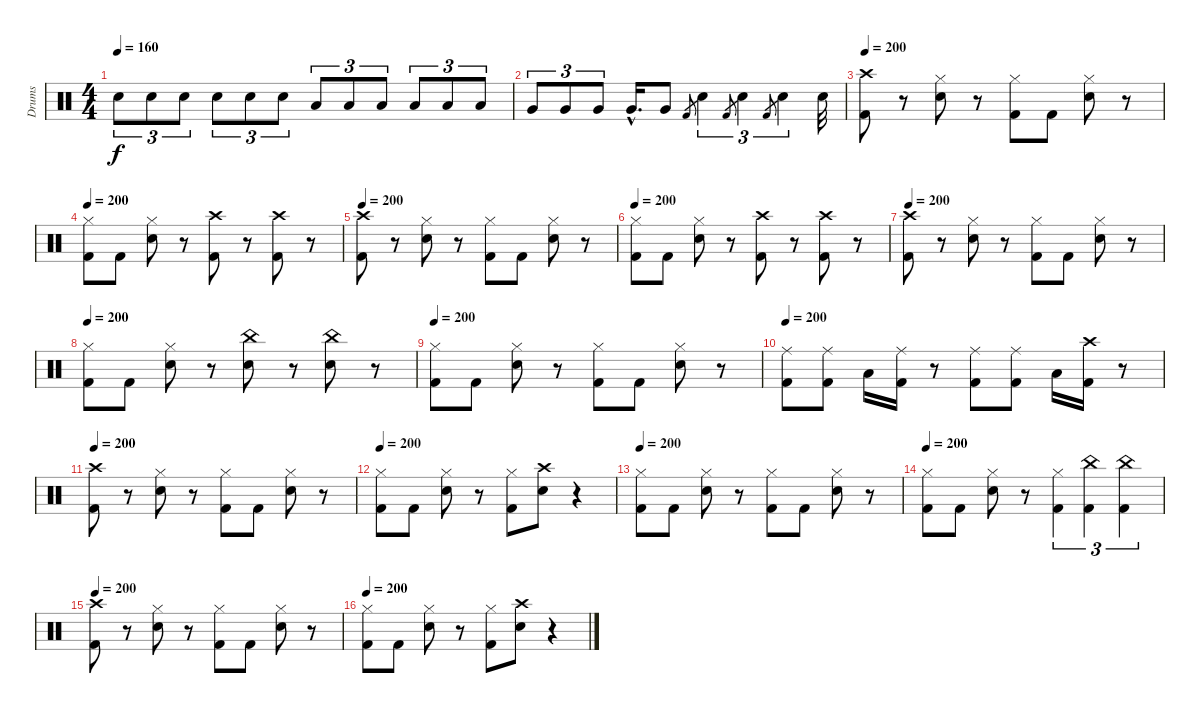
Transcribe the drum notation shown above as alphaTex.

\track ("Drums" "Drums") {instrument percussion}
\staff {score}
\articulation defaults
\ts (4 4)
\tempo 160
\clef neutral
\ks c "Snare (hit) 2".8{tu (3 2) dy f} "Snare (hit) 2".8{tu (3 2)} "Snare (hit) 2".8{tu (3 2)} "Snare (hit) 2".8{tu (3 2)} "Snare (hit) 2".8{tu (3 2)} "Snare (hit) 2".8{tu (3 2)} "Low Tom (hit)".8{tu (3 2)} "Low Tom (hit)".8{tu (3 2)} "Low Tom (hit)".8{tu (3 2)} "Low Tom (hit)".8{tu (3 2)} "Low Tom (hit)".8{tu (3 2)} "Low Tom (hit)".8{tu (3 2)}
|
"Very Low Tom (hit)".8{tu (3 2)} "Very Low Tom (hit)".8{tu (3 2)} "Very Low Tom (hit)".8{tu (3 2)} "Very Low Tom (hit)"{hac}.16{d} "Very Low Tom (hit)".8 "Kick (hit) 2".8{gr} "Snare (hit) 2".4{tu (3 2)} "Kick (hit) 2".8{gr} "Snare (hit) 2".4{tu (3 2)} "Kick (hit) 2".8{gr} "Snare (hit) 2".4{tu (3 2)} "Snare (hit) 2".32 |
\tempo 200
("Kick (hit) 2" "Crash high (hit)").8 r.8 ("Hi-Hat (closed)" "Snare (hit) 2").8 r.8 ("Kick (hit) 2" "Hi-Hat (closed)").8 "Kick (hit) 2".8 ("Snare (hit) 2" "Hi-Hat (closed)").8 r.8 |
\tempo 200
("Kick (hit) 2" "Hi-Hat (closed)").8 "Kick (hit) 2".8 ("Snare (hit) 2" "Hi-Hat (closed)").8 r.8 ("Crash high (hit)" "Kick (hit) 2").8 r.8 ("Crash high (hit)" "Kick (hit) 2").8 r.8 |
\tempo 200
("Kick (hit) 2" "Crash high (hit)").8 r.8 ("Hi-Hat (closed)" "Snare (hit) 2").8 r.8 ("Kick (hit) 2" "Hi-Hat (closed)").8 "Kick (hit) 2".8 ("Snare (hit) 2" "Hi-Hat (closed)").8 r.8 |
\tempo 200
("Kick (hit) 2" "Hi-Hat (closed)").8 "Kick (hit) 2".8 ("Snare (hit) 2" "Hi-Hat (closed)").8 r.8 ("Crash high (hit)" "Kick (hit) 2").8 r.8 ("Crash high (hit)" "Kick (hit) 2").8 r.8 |
\tempo 200
("Kick (hit) 2" "Crash high (hit)").8 r.8 ("Hi-Hat (closed)" "Snare (hit) 2").8 r.8 ("Kick (hit) 2" "Hi-Hat (closed)").8 "Kick (hit) 2".8 ("Snare (hit) 2" "Hi-Hat (closed)").8 r.8 |
\tempo 200
("Kick (hit) 2" "Hi-Hat (closed)").8 "Kick (hit) 2".8 ("Snare (hit) 2" "Hi-Hat (closed)").8 r.8 ("China (hit)" "Snare (hit) 2").8 r.8 ("China (hit)" "Snare (hit) 2").8 r.8 |
\tempo 200
("Kick (hit) 2" "Hi-Hat (closed)").8 "Kick (hit) 2".8 ("Snare (hit) 2" "Hi-Hat (closed)").8 r.8 ("Kick (hit) 2" "Hi-Hat (closed)").8 "Kick (hit) 2".8 ("Snare (hit) 2" "Hi-Hat (closed)").8 r.8 |
\tempo 200
("Ride (middle)" "Kick (hit) 2").8 ("Ride (middle)" "Kick (hit) 2").8 "Low Tom (hit)".16 ("Ride (middle)" "Kick (hit) 2").16 r.8 ("Ride (middle)" "Kick (hit) 2").8 ("Ride (middle)" "Kick (hit) 2").8 "Low Tom (hit)".16 ("Crash high (hit)" "Kick (hit) 2").16 r.8 |
\tempo 200
("Kick (hit) 2" "Crash high (hit)").8 r.8 ("Hi-Hat (closed)" "Snare (hit) 2").8 r.8 ("Hi-Hat (closed)" "Kick (hit) 2").8 "Kick (hit) 2".8 ("Hi-Hat (closed)" "Snare (hit) 2").8 r.8 |
\tempo 200
("Kick (hit) 2" "Hi-Hat (closed)").8 "Kick (hit) 2".8 ("Snare (hit) 2" "Hi-Hat (closed)").8 r.8 ("Hi-Hat (closed)" "Kick (hit) 2").8 ("Crash high (hit)" "Snare (hit) 2").8 r.4 |
\tempo 200
("Kick (hit) 2" "Hi-Hat (closed)").8 "Kick (hit) 2".8 ("Snare (hit) 2" "Hi-Hat (closed)").8 r.8 ("Kick (hit) 2" "Hi-Hat (closed)").8 "Kick (hit) 2".8 ("Snare (hit) 2" "Hi-Hat (closed)").8 r.8 |
\tempo 200
("Kick (hit) 2" "Hi-Hat (closed)").8 "Kick (hit) 2".8 ("Snare (hit) 2" "Hi-Hat (closed)").8 r.8 ("Hi-Hat (closed)" "Kick (hit) 2").4{tu (3 2)} ("China (hit)" "Kick (hit) 2").4{tu (3 2)} ("China (hit)" "Kick (hit) 2").4{tu (3 2)} |
\tempo 200
("Kick (hit) 2" "Crash high (hit)").8 r.8 ("Hi-Hat (closed)" "Snare (hit) 2").8 r.8 ("Hi-Hat (closed)" "Kick (hit) 2").8 "Kick (hit) 2".8 ("Hi-Hat (closed)" "Snare (hit) 2").8 r.8 |
\tempo 200
("Kick (hit) 2" "Hi-Hat (closed)").8 "Kick (hit) 2".8 ("Snare (hit) 2" "Hi-Hat (closed)").8 r.8 ("Hi-Hat (closed)" "Kick (hit) 2").8 ("Crash high (hit)" "Snare (hit) 2").8 r.4
